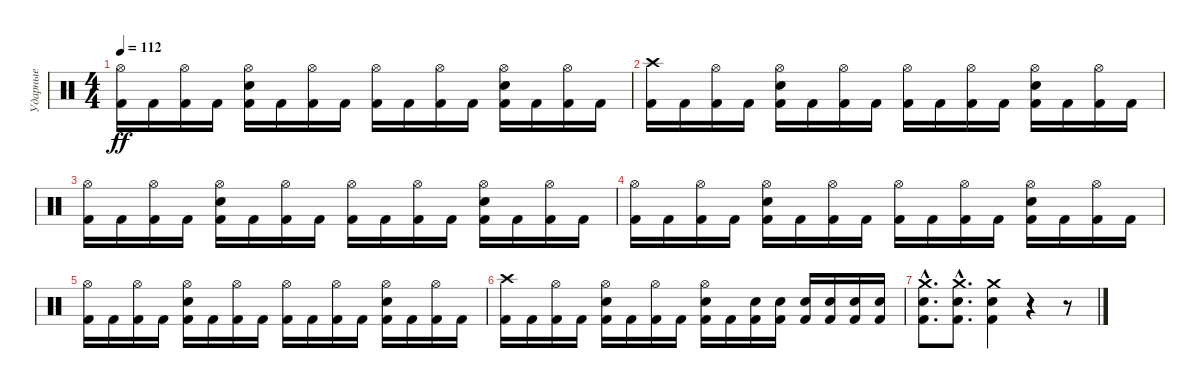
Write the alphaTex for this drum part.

\track ("Ударные" "Ударные") {instrument percussion}
\staff {score}
\articulation defaults
\ts (4 4)
\tempo 112
\clef neutral
\ks c
("Hi-Hat (open)" "Kick (hit) 2").16{dy ff} "Kick (hit) 2".16 ("Hi-Hat (open)" "Kick (hit) 2").16 "Kick (hit) 2".16 ("Hi-Hat (open)" "Snare (hit) 2" "Kick (hit) 2").16 "Kick (hit) 2".16 ("Hi-Hat (open)" "Kick (hit) 2").16 "Kick (hit) 2".16 ("Hi-Hat (open)" "Kick (hit) 2").16 "Kick (hit) 2".16 ("Hi-Hat (open)" "Kick (hit) 2").16 "Kick (hit) 2".16 ("Hi-Hat (open)" "Snare (hit) 2" "Kick (hit) 2").16 "Kick (hit) 2".16 ("Hi-Hat (open)" "Kick (hit) 2").16 "Kick (hit) 2".16 |
("Crash high (hit)" "Kick (hit) 2").16 "Kick (hit) 2".16 ("Hi-Hat (open)" "Kick (hit) 2").16 "Kick (hit) 2".16 ("Hi-Hat (open)" "Snare (hit) 2" "Kick (hit) 2").16 "Kick (hit) 2".16 ("Hi-Hat (open)" "Kick (hit) 2").16 "Kick (hit) 2".16 ("Hi-Hat (open)" "Kick (hit) 2").16 "Kick (hit) 2".16 ("Hi-Hat (open)" "Kick (hit) 2").16 "Kick (hit) 2".16 ("Hi-Hat (open)" "Snare (hit) 2" "Kick (hit) 2").16 "Kick (hit) 2".16 ("Hi-Hat (open)" "Kick (hit) 2").16 "Kick (hit) 2".16 |
("Hi-Hat (open)" "Kick (hit) 2").16 "Kick (hit) 2".16 ("Hi-Hat (open)" "Kick (hit) 2").16 "Kick (hit) 2".16 ("Hi-Hat (open)" "Snare (hit) 2" "Kick (hit) 2").16 "Kick (hit) 2".16 ("Hi-Hat (open)" "Kick (hit) 2").16 "Kick (hit) 2".16 ("Hi-Hat (open)" "Kick (hit) 2").16 "Kick (hit) 2".16 ("Hi-Hat (open)" "Kick (hit) 2").16 "Kick (hit) 2".16 ("Hi-Hat (open)" "Snare (hit) 2" "Kick (hit) 2").16 "Kick (hit) 2".16 ("Hi-Hat (open)" "Kick (hit) 2").16 "Kick (hit) 2".16 |
("Hi-Hat (open)" "Kick (hit) 2").16 "Kick (hit) 2".16 ("Hi-Hat (open)" "Kick (hit) 2").16 "Kick (hit) 2".16 ("Hi-Hat (open)" "Snare (hit) 2" "Kick (hit) 2").16 "Kick (hit) 2".16 ("Hi-Hat (open)" "Kick (hit) 2").16 "Kick (hit) 2".16 ("Hi-Hat (open)" "Kick (hit) 2").16 "Kick (hit) 2".16 ("Hi-Hat (open)" "Kick (hit) 2").16 "Kick (hit) 2".16 ("Hi-Hat (open)" "Snare (hit) 2" "Kick (hit) 2").16 "Kick (hit) 2".16 ("Hi-Hat (open)" "Kick (hit) 2").16 "Kick (hit) 2".16 |
("Hi-Hat (open)" "Kick (hit) 2").16 "Kick (hit) 2".16 ("Hi-Hat (open)" "Kick (hit) 2").16 "Kick (hit) 2".16 ("Hi-Hat (open)" "Snare (hit) 2" "Kick (hit) 2").16 "Kick (hit) 2".16 ("Hi-Hat (open)" "Kick (hit) 2").16 "Kick (hit) 2".16 ("Hi-Hat (open)" "Kick (hit) 2").16 "Kick (hit) 2".16 ("Hi-Hat (open)" "Kick (hit) 2").16 "Kick (hit) 2".16 ("Hi-Hat (open)" "Snare (hit) 2" "Kick (hit) 2").16 "Kick (hit) 2".16 ("Hi-Hat (open)" "Kick (hit) 2").16 "Kick (hit) 2".16 |
("Crash high (hit)" "Kick (hit) 2").16 "Kick (hit) 2".16 ("Hi-Hat (open)" "Kick (hit) 2").16 "Kick (hit) 2".16 ("Hi-Hat (open)" "Snare (hit) 2" "Kick (hit) 2").16 "Kick (hit) 2".16 ("Hi-Hat (open)" "Kick (hit) 2").16 "Kick (hit) 2".16 ("Hi-Hat (open)" "Snare (hit) 2" "Kick (hit) 2").16 "Kick (hit) 2".16 ("Snare (hit) 2" "Kick (hit) 2").16 ("Snare (hit) 2" "Kick (hit) 2").16 ("Snare (hit) 2" "Kick (hit) 2").16 ("Snare (hit) 2" "Kick (hit) 2").16 ("Snare (hit) 2" "Kick (hit) 2").16 ("Snare (hit) 2" "Kick (hit) 2").16 |
("Crash medium (hit)"{hac} "Snare (hit) 2"{hac} "Kick (hit) 2"{hac}).8{d} ("Crash medium (hit)"{hac} "Snare (hit) 2"{hac} "Kick (hit) 2"{hac}).8{d} ("Crash medium (hit)" "Snare (hit) 2" "Kick (hit) 2").4 r.4 r.8
